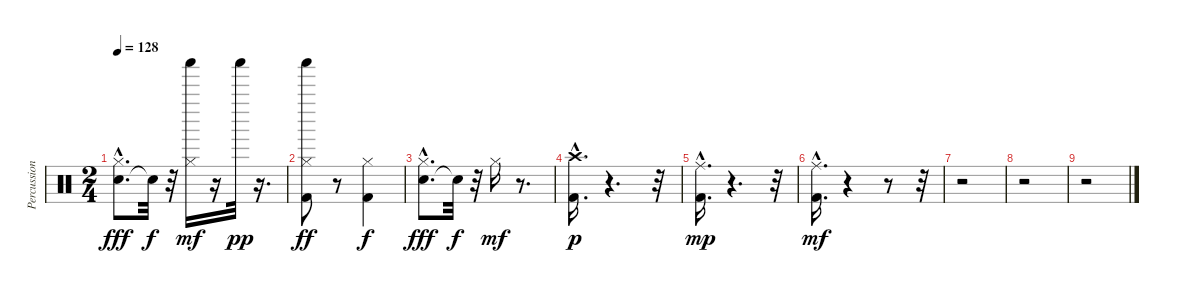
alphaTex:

\track ("Percussion" "Percussion") {instrument percussion}
\staff {score}
\articulation defaults
\ts (2 4)
\tempo 128
\clef neutral
\ks c
("Electric Snare (hit)"{hac} "Hi-Hat (closed)").8{d dy fff} "Snare (hit)"{t}.32{dy f} r.32 ("Shaker (hit)" "Hi-Hat (closed)").16{dy mf} r.16 "Shaker (hit)".32{dy pp} r.16{d} |
("Shaker (hit)" "Hi-Hat (closed)" "Kick (hit) 2").8{dy ff} r.8 ("Kick (hit) 2" "Hi-Hat (closed)").4{dy f} |
("Electric Snare (hit)"{hac} "Hi-Hat (closed)").8{d dy fff} "Snare (hit)"{t}.32{dy f} r.32 "Hi-Hat (closed)".16{dy mf} r.8{d} |
("Crash high (hit)" "Kick (hit) 2"{hac}).16{d dy p} r.4{d} r.32 |
("Ride (middle)" "Kick (hit) 2"{hac}).16{d dy mp} r.4{d} r.32 |
("Kick (hit) 2"{hac} "Ride (middle)").16{d dy mf} r.4 r.8 r.32 |
r.2 |
r.2 |
r.2
